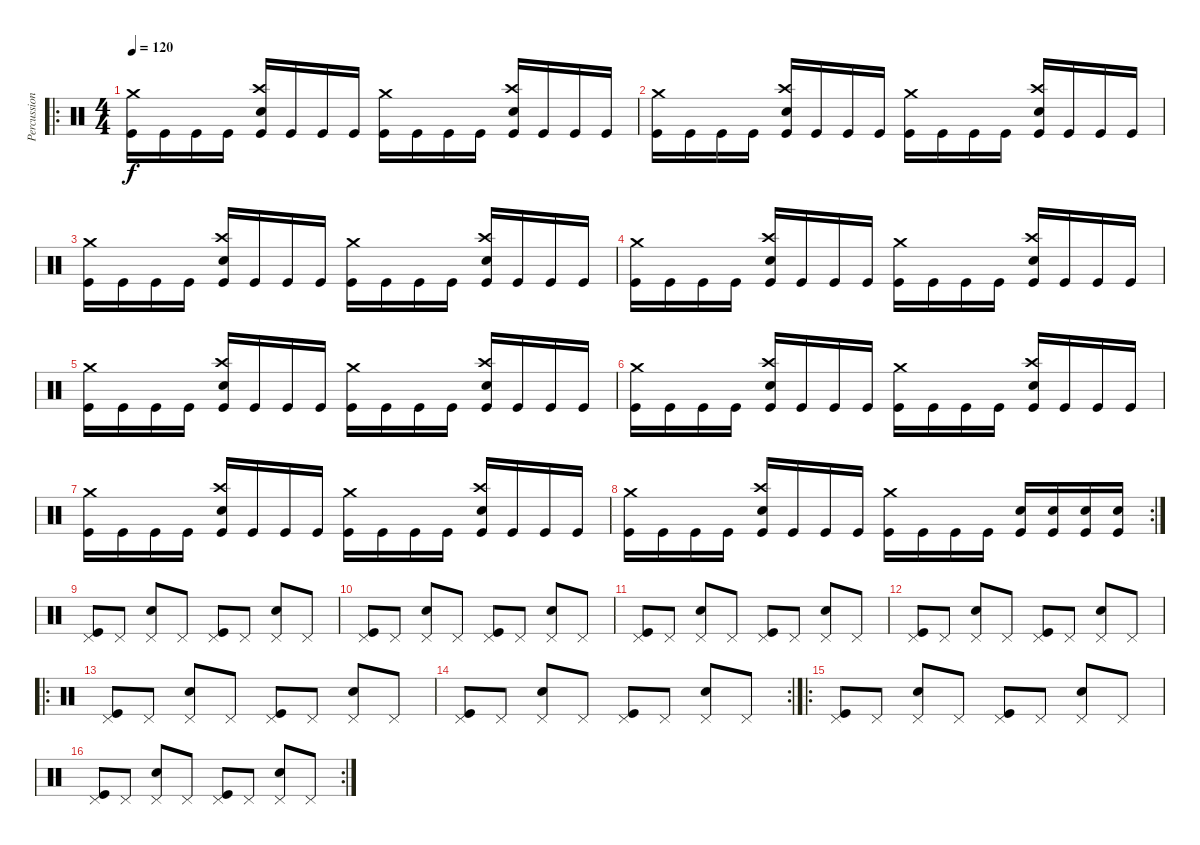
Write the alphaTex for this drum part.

\track ("Percussion" "Percussion") {instrument percussion}
\staff {score}
\articulation defaults
\ro
\ts (4 4)
\tempo 120
\clef neutral
\ks c
("Crash medium (hit)" "Kick (hit)").16{dy f} "Kick (hit)".16 "Kick (hit)".16 "Kick (hit)".16 ("Crash high (hit)" "Snare (hit) 2" "Kick (hit)").16 "Kick (hit)".16 "Kick (hit)".16 "Kick (hit)".16 ("Crash medium (hit)" "Kick (hit)").16 "Kick (hit)".16 "Kick (hit)".16 "Kick (hit)".16 ("Crash high (hit)" "Snare (hit) 2" "Kick (hit)").16 "Kick (hit)".16 "Kick (hit)".16 "Kick (hit)".16 |
("Crash medium (hit)" "Kick (hit)").16 "Kick (hit)".16 "Kick (hit)".16 "Kick (hit)".16 ("Crash high (hit)" "Snare (hit) 2" "Kick (hit)").16 "Kick (hit)".16 "Kick (hit)".16 "Kick (hit)".16 ("Crash medium (hit)" "Kick (hit)").16 "Kick (hit)".16 "Kick (hit)".16 "Kick (hit)".16 ("Crash high (hit)" "Snare (hit) 2" "Kick (hit)").16 "Kick (hit)".16 "Kick (hit)".16 "Kick (hit)".16 |
("Crash medium (hit)" "Kick (hit)").16 "Kick (hit)".16 "Kick (hit)".16 "Kick (hit)".16 ("Crash high (hit)" "Snare (hit) 2" "Kick (hit)").16 "Kick (hit)".16 "Kick (hit)".16 "Kick (hit)".16 ("Crash medium (hit)" "Kick (hit)").16 "Kick (hit)".16 "Kick (hit)".16 "Kick (hit)".16 ("Crash high (hit)" "Snare (hit) 2" "Kick (hit)").16 "Kick (hit)".16 "Kick (hit)".16 "Kick (hit)".16 |
("Crash medium (hit)" "Kick (hit)").16 "Kick (hit)".16 "Kick (hit)".16 "Kick (hit)".16 ("Crash high (hit)" "Snare (hit) 2" "Kick (hit)").16 "Kick (hit)".16 "Kick (hit)".16 "Kick (hit)".16 ("Crash medium (hit)" "Kick (hit)").16 "Kick (hit)".16 "Kick (hit)".16 "Kick (hit)".16 ("Crash high (hit)" "Snare (hit) 2" "Kick (hit)").16 "Kick (hit)".16 "Kick (hit)".16 "Kick (hit)".16 |
("Crash medium (hit)" "Kick (hit)").16 "Kick (hit)".16 "Kick (hit)".16 "Kick (hit)".16 ("Crash high (hit)" "Snare (hit) 2" "Kick (hit)").16 "Kick (hit)".16 "Kick (hit)".16 "Kick (hit)".16 ("Crash medium (hit)" "Kick (hit)").16 "Kick (hit)".16 "Kick (hit)".16 "Kick (hit)".16 ("Crash high (hit)" "Snare (hit) 2" "Kick (hit)").16 "Kick (hit)".16 "Kick (hit)".16 "Kick (hit)".16 |
("Crash medium (hit)" "Kick (hit)").16 "Kick (hit)".16 "Kick (hit)".16 "Kick (hit)".16 ("Crash high (hit)" "Snare (hit) 2" "Kick (hit)").16 "Kick (hit)".16 "Kick (hit)".16 "Kick (hit)".16 ("Crash medium (hit)" "Kick (hit)").16 "Kick (hit)".16 "Kick (hit)".16 "Kick (hit)".16 ("Crash high (hit)" "Snare (hit) 2" "Kick (hit)").16 "Kick (hit)".16 "Kick (hit)".16 "Kick (hit)".16 |
("Crash medium (hit)" "Kick (hit)").16 "Kick (hit)".16 "Kick (hit)".16 "Kick (hit)".16 ("Crash high (hit)" "Snare (hit) 2" "Kick (hit)").16 "Kick (hit)".16 "Kick (hit)".16 "Kick (hit)".16 ("Crash medium (hit)" "Kick (hit)").16 "Kick (hit)".16 "Kick (hit)".16 "Kick (hit)".16 ("Crash high (hit)" "Snare (hit) 2" "Kick (hit)").16 "Kick (hit)".16 "Kick (hit)".16 "Kick (hit)".16 |
\rc 2
("Crash medium (hit)" "Kick (hit)").16 "Kick (hit)".16 "Kick (hit)".16 "Kick (hit)".16 ("Crash high (hit)" "Snare (hit) 2" "Kick (hit)").16 "Kick (hit)".16 "Kick (hit)".16 "Kick (hit)".16 ("Crash medium (hit)" "Kick (hit)").16 "Kick (hit)".16 "Kick (hit)".16 "Kick (hit)".16 ("Snare (hit) 2" "Kick (hit)").16 ("Snare (hit) 2" "Kick (hit)").16 ("Snare (hit) 2" "Kick (hit)").16 ("Snare (hit) 2" "Kick (hit)").16 |
("Pedal Hi-Hat (hit)" "Kick (hit)").8 "Pedal Hi-Hat (hit)".8 ("Pedal Hi-Hat (hit)" "Snare (hit) 2").8 "Pedal Hi-Hat (hit)".8 ("Pedal Hi-Hat (hit)" "Kick (hit)").8 "Pedal Hi-Hat (hit)".8 ("Pedal Hi-Hat (hit)" "Snare (hit) 2").8 "Pedal Hi-Hat (hit)".8 |
("Pedal Hi-Hat (hit)" "Kick (hit)").8 "Pedal Hi-Hat (hit)".8 ("Pedal Hi-Hat (hit)" "Snare (hit) 2").8 "Pedal Hi-Hat (hit)".8 ("Pedal Hi-Hat (hit)" "Kick (hit)").8 "Pedal Hi-Hat (hit)".8 ("Pedal Hi-Hat (hit)" "Snare (hit) 2").8 "Pedal Hi-Hat (hit)".8 |
("Pedal Hi-Hat (hit)" "Kick (hit)").8 "Pedal Hi-Hat (hit)".8 ("Pedal Hi-Hat (hit)" "Snare (hit) 2").8 "Pedal Hi-Hat (hit)".8 ("Pedal Hi-Hat (hit)" "Kick (hit)").8 "Pedal Hi-Hat (hit)".8 ("Pedal Hi-Hat (hit)" "Snare (hit) 2").8 "Pedal Hi-Hat (hit)".8 |
("Pedal Hi-Hat (hit)" "Kick (hit)").8 "Pedal Hi-Hat (hit)".8 ("Pedal Hi-Hat (hit)" "Snare (hit) 2").8 "Pedal Hi-Hat (hit)".8 ("Pedal Hi-Hat (hit)" "Kick (hit)").8 "Pedal Hi-Hat (hit)".8 ("Pedal Hi-Hat (hit)" "Snare (hit) 2").8 "Pedal Hi-Hat (hit)".8 |
\ro
("Pedal Hi-Hat (hit)" "Kick (hit)").8 "Pedal Hi-Hat (hit)".8 ("Pedal Hi-Hat (hit)" "Snare (hit) 2").8 "Pedal Hi-Hat (hit)".8 ("Pedal Hi-Hat (hit)" "Kick (hit)").8 "Pedal Hi-Hat (hit)".8 ("Pedal Hi-Hat (hit)" "Snare (hit) 2").8 "Pedal Hi-Hat (hit)".8 |
\rc 2
("Pedal Hi-Hat (hit)" "Kick (hit)").8 "Pedal Hi-Hat (hit)".8 ("Pedal Hi-Hat (hit)" "Snare (hit) 2").8 "Pedal Hi-Hat (hit)".8 ("Pedal Hi-Hat (hit)" "Kick (hit)").8 "Pedal Hi-Hat (hit)".8 ("Pedal Hi-Hat (hit)" "Snare (hit) 2").8 "Pedal Hi-Hat (hit)".8 |
\ro
("Pedal Hi-Hat (hit)" "Kick (hit)").8 "Pedal Hi-Hat (hit)".8 ("Pedal Hi-Hat (hit)" "Snare (hit) 2").8 "Pedal Hi-Hat (hit)".8 ("Pedal Hi-Hat (hit)" "Kick (hit)").8 "Pedal Hi-Hat (hit)".8 ("Pedal Hi-Hat (hit)" "Snare (hit) 2").8 "Pedal Hi-Hat (hit)".8 |
\rc 2
("Pedal Hi-Hat (hit)" "Kick (hit)").8 "Pedal Hi-Hat (hit)".8 ("Pedal Hi-Hat (hit)" "Snare (hit) 2").8 "Pedal Hi-Hat (hit)".8 ("Pedal Hi-Hat (hit)" "Kick (hit)").8 "Pedal Hi-Hat (hit)".8 ("Pedal Hi-Hat (hit)" "Snare (hit) 2").8 "Pedal Hi-Hat (hit)".8
